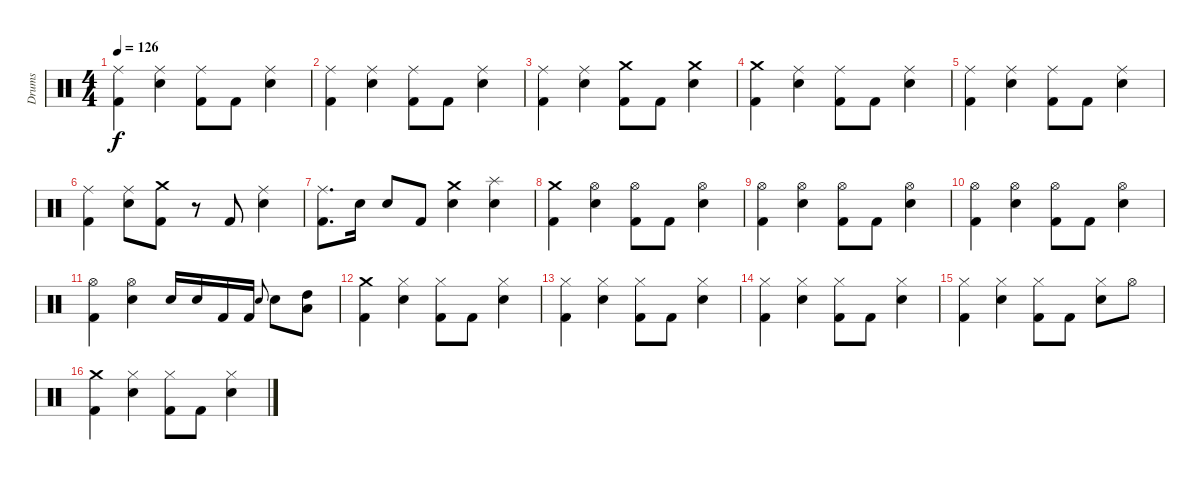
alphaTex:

\track ("Drums" "Drums") {instrument percussion}
\staff {score}
\articulation defaults
\ts (4 4)
\tempo 126
\clef neutral
\ks c
("Ride (middle)" "Kick (hit) 2").4{dy f} ("Ride (middle)" "Electric Snare (hit)").4 ("Ride (middle)" "Kick (hit) 2").8 "Kick (hit) 2".8 ("Ride (middle)" "Electric Snare (hit)").4 |
("Ride (middle)" "Kick (hit) 2").4 ("Ride (middle)" "Electric Snare (hit)").4 ("Ride (middle)" "Kick (hit) 2").8 "Kick (hit) 2".8 ("Ride (middle)" "Electric Snare (hit)").4 |
("Ride (middle)" "Kick (hit) 2").4 ("Ride (middle)" "Electric Snare (hit)").4 ("Crash medium (hit)" "Kick (hit) 2").8 "Kick (hit) 2".8 ("Crash medium (hit)" "Electric Snare (hit)").4 |
("Crash medium (hit)" "Kick (hit) 2").4 ("Ride (middle)" "Electric Snare (hit)").4 ("Ride (middle)" "Kick (hit) 2").8 "Kick (hit) 2".8 ("Ride (middle)" "Electric Snare (hit)").4 |
("Ride (middle)" "Kick (hit) 2").4 ("Ride (middle)" "Electric Snare (hit)").4 ("Ride (middle)" "Kick (hit) 2").8 "Kick (hit) 2".8 ("Ride (middle)" "Electric Snare (hit)").4 |
("Ride (middle)" "Kick (hit) 2").4 ("Ride (middle)" "Electric Snare (hit)").8 ("Crash medium (hit)" "Kick (hit) 2").8 r.8 "Kick (hit) 2".8 ("Ride (middle)" "Electric Snare (hit)").4 |
("Ride (middle)" "Kick (hit) 2").8{d} "Electric Snare (hit)".16 "Electric Snare (hit)".8 "Kick (hit) 2".8 ("Crash medium (hit)" "Electric Snare (hit)").4 ("Splash (hit)" "Electric Snare (hit)").4 |
("Crash medium (hit)" "Kick (hit) 2").4 ("Hi-Hat (open)" "Electric Snare (hit)").4 ("Hi-Hat (open)" "Kick (hit) 2").8 "Kick (hit) 2".8 ("Hi-Hat (open)" "Electric Snare (hit)").4 |
("Hi-Hat (open)" "Kick (hit) 2").4 ("Hi-Hat (open)" "Electric Snare (hit)").4 ("Hi-Hat (open)" "Kick (hit) 2").8 "Kick (hit) 2".8 ("Hi-Hat (open)" "Electric Snare (hit)").4 |
("Hi-Hat (open)" "Kick (hit) 2").4 ("Hi-Hat (open)" "Electric Snare (hit)").4 ("Hi-Hat (open)" "Kick (hit) 2").8 "Kick (hit) 2".8 ("Hi-Hat (open)" "Electric Snare (hit)").4 |
("Hi-Hat (open)" "Kick (hit) 2").4 ("Hi-Hat (open)" "Electric Snare (hit)").4 "Electric Snare (hit)".16 "Electric Snare (hit)".16 "Kick (hit) 2".16 "Kick (hit) 2".16 "Electric Snare (hit)".8{gr onbeat} "Electric Snare (hit)".8 ("High Tom (hit)" "Low Tom (hit)").8 |
("Crash medium (hit)" "Kick (hit) 2").4 ("Hi-Hat (closed)" "Electric Snare (hit)").4 ("Hi-Hat (closed)" "Kick (hit) 2").8 "Kick (hit) 2".8 ("Hi-Hat (closed)" "Electric Snare (hit)").4 |
("Hi-Hat (closed)" "Kick (hit) 2").4 ("Hi-Hat (closed)" "Electric Snare (hit)").4 ("Hi-Hat (closed)" "Kick (hit) 2").8 "Kick (hit) 2".8 ("Hi-Hat (closed)" "Electric Snare (hit)").4 |
("Hi-Hat (closed)" "Kick (hit) 2").4 ("Hi-Hat (closed)" "Electric Snare (hit)").4 ("Hi-Hat (closed)" "Kick (hit) 2").8 "Kick (hit) 2".8 ("Hi-Hat (closed)" "Electric Snare (hit)").4 |
("Hi-Hat (closed)" "Kick (hit) 2").4 ("Hi-Hat (closed)" "Electric Snare (hit)").4 ("Hi-Hat (closed)" "Kick (hit) 2").8 "Kick (hit) 2".8 ("Hi-Hat (closed)" "Electric Snare (hit)").8 "Hi-Hat (open)".8 |
("Crash medium (hit)" "Kick (hit) 2").4 ("Hi-Hat (closed)" "Electric Snare (hit)").4 ("Hi-Hat (closed)" "Kick (hit) 2").8 "Kick (hit) 2".8 ("Hi-Hat (closed)" "Electric Snare (hit)").4
